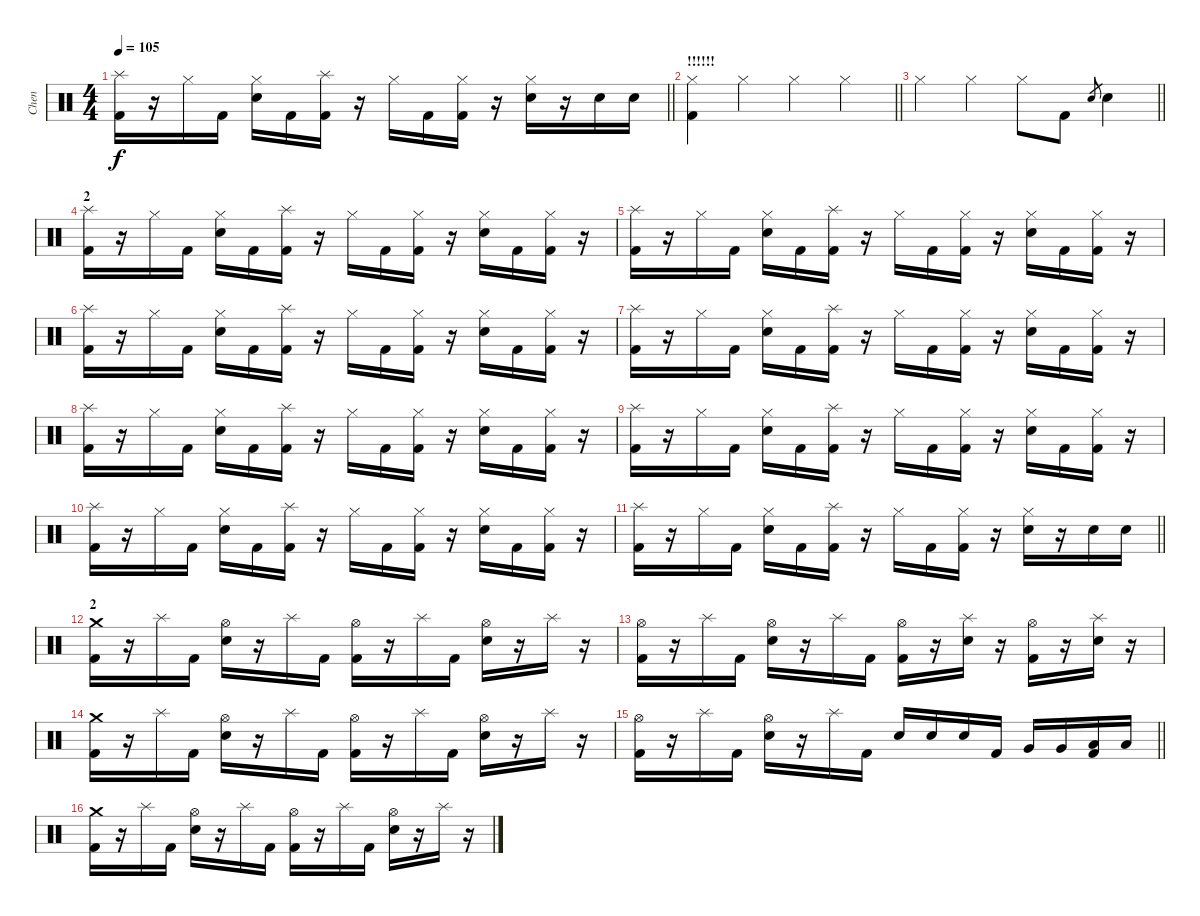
\track ("Chen" "Chen") {instrument percussion}
\staff {score}
\articulation defaults
\ts (4 4)
\tempo 105
\clef neutral
\barLineRight lightlight
\ks c
("Splash (hit)" "Kick (hit) 2").16{dy f} r.16 "Hi-Hat (closed)".16 "Kick (hit) 2".16 ("Hi-Hat (closed)" "Electric Snare (hit)").16 "Kick (hit) 2".16 ("Splash (hit)" "Kick (hit) 2").16 r.16 "Hi-Hat (closed)".16 "Kick (hit) 2".16 ("Hi-Hat (closed)" "Kick (hit) 2").16 r.16 ("Hi-Hat (closed)" "Electric Snare (hit)").16 r.16 "Electric Snare (hit)".16 "Electric Snare (hit)".16 |
\section ("" "!!!!!!")
\barLineRight lightlight
("Hi-Hat (closed)" "Kick (hit) 2").4 "Hi-Hat (closed)".4 "Hi-Hat (closed)".4 "Hi-Hat (closed)".4 |
\section ("" "")
\barLineRight lightlight "Hi-Hat (closed)".4 "Hi-Hat (closed)".4 "Hi-Hat (closed)".8 "Kick (hit) 2".8 "Electric Snare (hit)".8{gr} "Electric Snare (hit)".4
|
\section ("" "2")
("Splash (hit)" "Kick (hit) 2").16 r.16 "Hi-Hat (closed)".16 "Kick (hit) 2".16 ("Hi-Hat (closed)" "Electric Snare (hit)").16 "Kick (hit) 2".16 ("Splash (hit)" "Kick (hit) 2").16 r.16 "Hi-Hat (closed)".16 "Kick (hit) 2".16 ("Hi-Hat (closed)" "Kick (hit) 2").16 r.16 ("Hi-Hat (closed)" "Electric Snare (hit)").16 "Kick (hit) 2".16 ("Hi-Hat (closed)" "Kick (hit) 2").16 r.16 |
("Splash (hit)" "Kick (hit) 2").16 r.16 "Hi-Hat (closed)".16 "Kick (hit) 2".16 ("Hi-Hat (closed)" "Electric Snare (hit)").16 "Kick (hit) 2".16 ("Splash (hit)" "Kick (hit) 2").16 r.16 "Hi-Hat (closed)".16 "Kick (hit) 2".16 ("Hi-Hat (closed)" "Kick (hit) 2").16 r.16 ("Hi-Hat (closed)" "Electric Snare (hit)").16 "Kick (hit) 2".16 ("Hi-Hat (closed)" "Kick (hit) 2").16 r.16 |
("Splash (hit)" "Kick (hit) 2").16 r.16 "Hi-Hat (closed)".16 "Kick (hit) 2".16 ("Hi-Hat (closed)" "Electric Snare (hit)").16 "Kick (hit) 2".16 ("Splash (hit)" "Kick (hit) 2").16 r.16 "Hi-Hat (closed)".16 "Kick (hit) 2".16 ("Hi-Hat (closed)" "Kick (hit) 2").16 r.16 ("Hi-Hat (closed)" "Electric Snare (hit)").16 "Kick (hit) 2".16 ("Hi-Hat (closed)" "Kick (hit) 2").16 r.16 |
("Splash (hit)" "Kick (hit) 2").16 r.16 "Hi-Hat (closed)".16 "Kick (hit) 2".16 ("Hi-Hat (closed)" "Electric Snare (hit)").16 "Kick (hit) 2".16 ("Splash (hit)" "Kick (hit) 2").16 r.16 "Hi-Hat (closed)".16 "Kick (hit) 2".16 ("Hi-Hat (closed)" "Kick (hit) 2").16 r.16 ("Hi-Hat (closed)" "Electric Snare (hit)").16 "Kick (hit) 2".16 ("Hi-Hat (closed)" "Kick (hit) 2").16 r.16 |
("Splash (hit)" "Kick (hit) 2").16 r.16 "Hi-Hat (closed)".16 "Kick (hit) 2".16 ("Hi-Hat (closed)" "Electric Snare (hit)").16 "Kick (hit) 2".16 ("Splash (hit)" "Kick (hit) 2").16 r.16 "Hi-Hat (closed)".16 "Kick (hit) 2".16 ("Hi-Hat (closed)" "Kick (hit) 2").16 r.16 ("Hi-Hat (closed)" "Electric Snare (hit)").16 "Kick (hit) 2".16 ("Hi-Hat (closed)" "Kick (hit) 2").16 r.16 |
("Splash (hit)" "Kick (hit) 2").16 r.16 "Hi-Hat (closed)".16 "Kick (hit) 2".16 ("Hi-Hat (closed)" "Electric Snare (hit)").16 "Kick (hit) 2".16 ("Splash (hit)" "Kick (hit) 2").16 r.16 "Hi-Hat (closed)".16 "Kick (hit) 2".16 ("Hi-Hat (closed)" "Kick (hit) 2").16 r.16 ("Hi-Hat (closed)" "Electric Snare (hit)").16 "Kick (hit) 2".16 ("Hi-Hat (closed)" "Kick (hit) 2").16 r.16 |
("Splash (hit)" "Kick (hit) 2").16 r.16 "Hi-Hat (closed)".16 "Kick (hit) 2".16 ("Hi-Hat (closed)" "Electric Snare (hit)").16 "Kick (hit) 2".16 ("Splash (hit)" "Kick (hit) 2").16 r.16 "Hi-Hat (closed)".16 "Kick (hit) 2".16 ("Hi-Hat (closed)" "Kick (hit) 2").16 r.16 ("Hi-Hat (closed)" "Electric Snare (hit)").16 "Kick (hit) 2".16 ("Hi-Hat (closed)" "Kick (hit) 2").16 r.16 |
\barLineRight lightlight
("Splash (hit)" "Kick (hit) 2").16 r.16 "Hi-Hat (closed)".16 "Kick (hit) 2".16 ("Hi-Hat (closed)" "Electric Snare (hit)").16 "Kick (hit) 2".16 ("Splash (hit)" "Kick (hit) 2").16 r.16 "Hi-Hat (closed)".16 "Kick (hit) 2".16 ("Hi-Hat (closed)" "Kick (hit) 2").16 r.16 ("Hi-Hat (closed)" "Electric Snare (hit)").16 r.16 "Electric Snare (hit)".16 "Electric Snare (hit)".16 |
\section ("" "2")
("Crash medium (hit)" "Kick (hit) 2").16 r.16 "Splash (hit)".16 "Kick (hit) 2".16 ("Hi-Hat (open)" "Electric Snare (hit)").16 r.16 "Splash (hit)".16 "Kick (hit) 2".16 ("Hi-Hat (open)" "Kick (hit) 2").16 r.16 "Splash (hit)".16 "Kick (hit) 2".16 ("Hi-Hat (open)" "Electric Snare (hit)").16 r.16 "Splash (hit)".16 r.16 |
("Hi-Hat (open)" "Kick (hit) 2").16 r.16 "Splash (hit)".16 "Kick (hit) 2".16 ("Hi-Hat (open)" "Electric Snare (hit)").16 r.16 "Splash (hit)".16 "Kick (hit) 2".16 ("Hi-Hat (open)" "Kick (hit) 2").16 r.16 ("Splash (hit)" "Electric Snare (hit)").16 r.16 ("Hi-Hat (open)" "Kick (hit) 2").16 r.16 ("Splash (hit)" "Electric Snare (hit)").16 r.16 |
("Crash medium (hit)" "Kick (hit) 2").16 r.16 "Splash (hit)".16 "Kick (hit) 2".16 ("Hi-Hat (open)" "Electric Snare (hit)").16 r.16 "Splash (hit)".16 "Kick (hit) 2".16 ("Hi-Hat (open)" "Kick (hit) 2").16 r.16 "Splash (hit)".16 "Kick (hit) 2".16 ("Hi-Hat (open)" "Electric Snare (hit)").16 r.16 "Splash (hit)".16 r.16 |
\barLineRight lightlight
("Hi-Hat (open)" "Kick (hit) 2").16 r.16 "Splash (hit)".16 "Kick (hit) 2".16 ("Hi-Hat (open)" "Electric Snare (hit)").16 r.16 "Splash (hit)".16 "Kick (hit) 2".16 "Electric Snare (hit)".16 "Electric Snare (hit)".16 "Electric Snare (hit)".16 "Kick (hit) 2".16 "Very Low Tom (hit)".16 "Very Low Tom (hit)".16 ("Low Tom (hit)" "Kick (hit) 2").16 "Low Tom (hit)".16 |
("Crash medium (hit)" "Kick (hit) 2").16 r.16 "Splash (hit)".16 "Kick (hit) 2".16 ("Hi-Hat (open)" "Electric Snare (hit)").16 r.16 "Splash (hit)".16 "Kick (hit) 2".16 ("Hi-Hat (open)" "Kick (hit) 2").16 r.16 "Splash (hit)".16 "Kick (hit) 2".16 ("Hi-Hat (open)" "Electric Snare (hit)").16 r.16 "Splash (hit)".16 r.16
